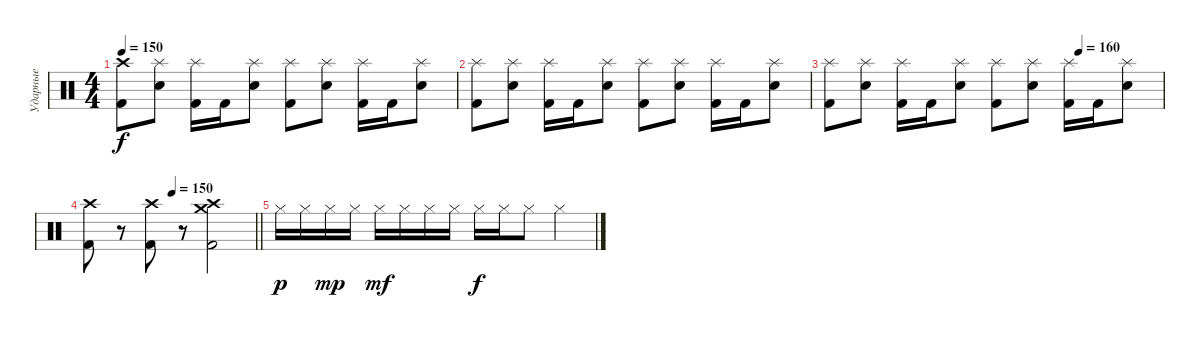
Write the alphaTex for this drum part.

\track ("Ударные" "Ударные") {instrument percussion}
\staff {score}
\articulation defaults
\ts (4 4)
\tempo 150
\clef neutral
\ks c
("Crash high (hit)" "Kick (hit) 2").8{dy f} ("Splash (hit)" "Electric Snare (hit)").8 ("Splash (hit)" "Kick (hit) 2").16 "Kick (hit) 2".16 ("Splash (hit)" "Electric Snare (hit)").8 ("Splash (hit)" "Kick (hit) 2").8 ("Splash (hit)" "Electric Snare (hit)").8 ("Splash (hit)" "Kick (hit) 2").16 "Kick (hit) 2".16 ("Splash (hit)" "Electric Snare (hit)").8 |
("Splash (hit)" "Kick (hit) 2").8 ("Splash (hit)" "Electric Snare (hit)").8 ("Splash (hit)" "Kick (hit) 2").16 "Kick (hit) 2".16 ("Splash (hit)" "Electric Snare (hit)").8 ("Splash (hit)" "Kick (hit) 2").8 ("Splash (hit)" "Electric Snare (hit)").8 ("Splash (hit)" "Kick (hit) 2").16 "Kick (hit) 2".16 ("Splash (hit)" "Electric Snare (hit)").8 |
\tempo (160 0.75)
("Splash (hit)" "Kick (hit) 2").8 ("Splash (hit)" "Electric Snare (hit)").8 ("Splash (hit)" "Kick (hit) 2").16 "Kick (hit) 2".16 ("Splash (hit)" "Electric Snare (hit)").8 ("Splash (hit)" "Kick (hit) 2").8 ("Splash (hit)" "Electric Snare (hit)").8 ("Splash (hit)" "Kick (hit) 2").16 "Kick (hit) 2".16 ("Splash (hit)" "Electric Snare (hit)").8 |
\tempo (150 0.5)
\barLineRight lightlight
("Crash high (hit)" "Kick (hit) 2").8 r.8 ("Crash high (hit)" "Kick (hit) 2").8 r.8 ("Crash medium (hit)" "Crash high (hit)" "Kick (hit) 2").2 |
"Hi-Hat (closed)".16{dy p} "Hi-Hat (closed)".16 "Hi-Hat (closed)".16{dy mp} "Hi-Hat (closed)".16 "Hi-Hat (closed)".16{dy mf} "Hi-Hat (closed)".16 "Hi-Hat (closed)".16 "Hi-Hat (closed)".16 "Hi-Hat (closed)".16{dy f} "Hi-Hat (closed)".16 "Hi-Hat (closed)".8 "Hi-Hat (closed)".4
